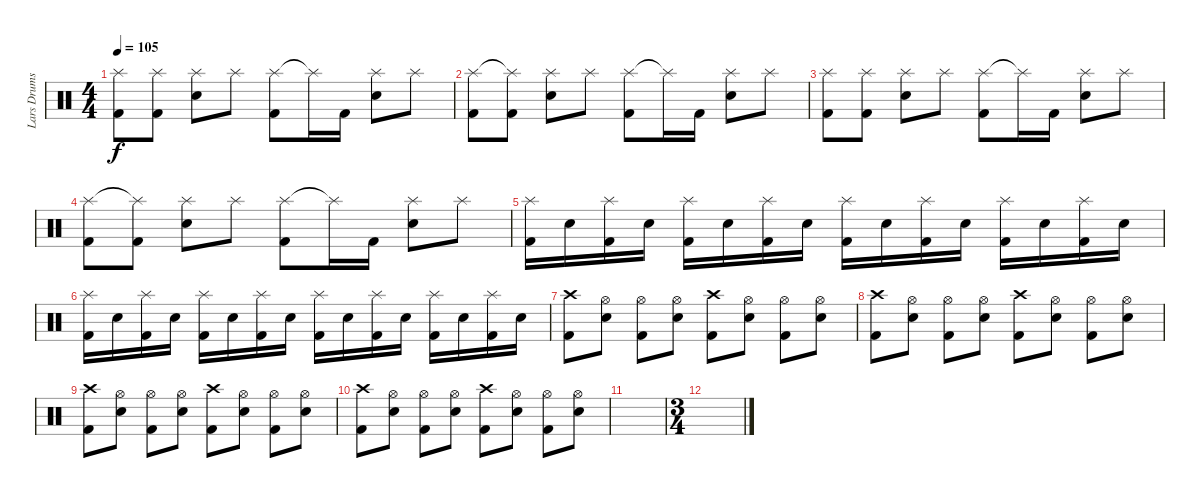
\track ("Lars Drums" "Lars Drums") {instrument percussion}
\staff {score}
\articulation defaults
\ts (4 4)
\tempo 105
\clef neutral
\ks c
("Splash (hit)" "Kick (hit) 2").8{dy f} ("Splash (hit)" "Kick (hit) 2").8 ("Splash (hit)" "Snare (hit) 2").8 "Splash (hit)".8 ("Splash (hit)" "Kick (hit) 2").8 "Splash (hit)"{t}.16 "Kick (hit) 2".16 ("Splash (hit)" "Snare (hit) 2").8 "Splash (hit)".8 |
("Splash (hit)" "Kick (hit) 2").8 ("Splash (hit)"{t} "Kick (hit) 2").8 ("Splash (hit)" "Snare (hit) 2").8 "Splash (hit)".8 ("Splash (hit)" "Kick (hit) 2").8 "Splash (hit)"{t}.16 "Kick (hit) 2".16 ("Splash (hit)" "Snare (hit) 2").8 "Splash (hit)".8 |
("Splash (hit)" "Kick (hit) 2").8 ("Splash (hit)" "Kick (hit) 2").8 ("Splash (hit)" "Snare (hit) 2").8 "Splash (hit)".8 ("Splash (hit)" "Kick (hit) 2").8 "Splash (hit)"{t}.16 "Kick (hit) 2".16 ("Splash (hit)" "Snare (hit) 2").8 "Splash (hit)".8 |
("Splash (hit)" "Kick (hit) 2").8 ("Splash (hit)"{t} "Kick (hit) 2").8 ("Splash (hit)" "Snare (hit) 2").8 "Splash (hit)".8 ("Splash (hit)" "Kick (hit) 2").8 "Splash (hit)"{t}.16 "Kick (hit) 2".16 ("Splash (hit)" "Snare (hit) 2").8 "Splash (hit)".8 |
("Splash (hit)" "Kick (hit) 2").16 "Snare (hit) 2".16 ("Splash (hit)" "Kick (hit) 2").16 "Snare (hit) 2".16 ("Splash (hit)" "Kick (hit) 2").16 "Snare (hit) 2".16 ("Splash (hit)" "Kick (hit) 2").16 "Snare (hit) 2".16 ("Splash (hit)" "Kick (hit) 2").16 "Snare (hit) 2".16 ("Splash (hit)" "Kick (hit) 2").16 "Snare (hit) 2".16 ("Splash (hit)" "Kick (hit) 2").16 "Snare (hit) 2".16 ("Splash (hit)" "Kick (hit) 2").16 "Snare (hit) 2".16 |
("Splash (hit)" "Kick (hit) 2").16 "Snare (hit) 2".16 ("Splash (hit)" "Kick (hit) 2").16 "Snare (hit) 2".16 ("Splash (hit)" "Kick (hit) 2").16 "Snare (hit) 2".16 ("Splash (hit)" "Kick (hit) 2").16 "Snare (hit) 2".16 ("Splash (hit)" "Kick (hit) 2").16 "Snare (hit) 2".16 ("Splash (hit)" "Kick (hit) 2").16 "Snare (hit) 2".16 ("Splash (hit)" "Kick (hit) 2").16 "Snare (hit) 2".16 ("Splash (hit)" "Kick (hit) 2").16 "Snare (hit) 2".16 |
("Crash high (hit)" "Kick (hit) 2").8 ("Hi-Hat (open)" "Snare (hit) 2").8 ("Hi-Hat (open)" "Kick (hit) 2").8 ("Hi-Hat (open)" "Snare (hit) 2").8 ("Crash high (hit)" "Kick (hit) 2").8 ("Hi-Hat (open)" "Snare (hit) 2").8 ("Hi-Hat (open)" "Kick (hit) 2").8 ("Hi-Hat (open)" "Snare (hit) 2").8 |
("Crash high (hit)" "Kick (hit) 2").8 ("Hi-Hat (open)" "Snare (hit) 2").8 ("Hi-Hat (open)" "Kick (hit) 2").8 ("Hi-Hat (open)" "Snare (hit) 2").8 ("Crash high (hit)" "Kick (hit) 2").8 ("Hi-Hat (open)" "Snare (hit) 2").8 ("Hi-Hat (open)" "Kick (hit) 2").8 ("Hi-Hat (open)" "Snare (hit) 2").8 |
("Crash high (hit)" "Kick (hit) 2").8 ("Hi-Hat (open)" "Snare (hit) 2").8 ("Hi-Hat (open)" "Kick (hit) 2").8 ("Hi-Hat (open)" "Snare (hit) 2").8 ("Crash high (hit)" "Kick (hit) 2").8 ("Hi-Hat (open)" "Snare (hit) 2").8 ("Hi-Hat (open)" "Kick (hit) 2").8 ("Hi-Hat (open)" "Snare (hit) 2").8 |
("Crash high (hit)" "Kick (hit) 2").8 ("Hi-Hat (open)" "Snare (hit) 2").8 ("Hi-Hat (open)" "Kick (hit) 2").8 ("Hi-Hat (open)" "Snare (hit) 2").8 ("Crash high (hit)" "Kick (hit) 2").8 ("Hi-Hat (open)" "Snare (hit) 2").8 ("Hi-Hat (open)" "Kick (hit) 2").8 ("Hi-Hat (open)" "Snare (hit) 2").8 |
|
\ts (3 4)
